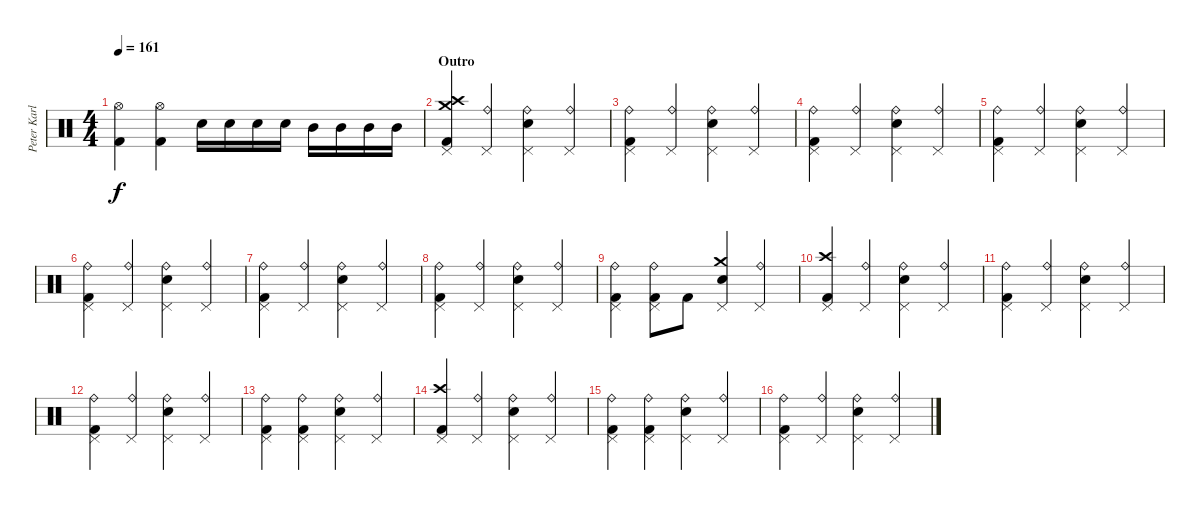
\track ("Peter Karlsson" "Peter Karl") {instrument percussion}
\staff {score}
\articulation defaults
\ts (4 4)
\tempo 161
\clef neutral
\ks c
("Hi-Hat (open)" "Kick (hit) 2").4{dy f} ("Hi-Hat (open)" "Kick (hit) 2").4 "Snare (hit) 2".16 "Snare (hit) 2".16 "Snare (hit) 2".16 "Snare (hit) 2".16 "Mid Tom (hit)".16 "Mid Tom (hit)".16 "Mid Tom (hit)".16 "Mid Tom (hit)".16 |
\section ("" "Outro")
("Crash high (hit)" "Crash medium (hit)" "Pedal Hi-Hat (hit)" "Kick (hit) 2").4 ("Ride (bell)" "Pedal Hi-Hat (hit)").4 ("Ride (bell)" "Snare (hit) 2" "Pedal Hi-Hat (hit)").4 ("Ride (bell)" "Pedal Hi-Hat (hit)").4 |
("Ride (bell)" "Pedal Hi-Hat (hit)" "Kick (hit) 2").4 ("Ride (bell)" "Pedal Hi-Hat (hit)").4 ("Ride (bell)" "Snare (hit) 2" "Pedal Hi-Hat (hit)").4 ("Ride (bell)" "Pedal Hi-Hat (hit)").4 |
("Ride (bell)" "Pedal Hi-Hat (hit)" "Kick (hit) 2").4 ("Ride (bell)" "Pedal Hi-Hat (hit)").4 ("Ride (bell)" "Snare (hit) 2" "Pedal Hi-Hat (hit)").4 ("Ride (bell)" "Pedal Hi-Hat (hit)").4 |
("Ride (bell)" "Pedal Hi-Hat (hit)" "Kick (hit) 2").4 ("Ride (bell)" "Pedal Hi-Hat (hit)").4 ("Ride (bell)" "Snare (hit) 2" "Pedal Hi-Hat (hit)").4 ("Ride (bell)" "Pedal Hi-Hat (hit)").4 |
("Ride (bell)" "Pedal Hi-Hat (hit)" "Kick (hit) 2").4 ("Ride (bell)" "Pedal Hi-Hat (hit)").4 ("Ride (bell)" "Snare (hit) 2" "Pedal Hi-Hat (hit)").4 ("Ride (bell)" "Pedal Hi-Hat (hit)").4 |
("Ride (bell)" "Pedal Hi-Hat (hit)" "Kick (hit) 2").4 ("Ride (bell)" "Pedal Hi-Hat (hit)").4 ("Ride (bell)" "Snare (hit) 2" "Pedal Hi-Hat (hit)").4 ("Ride (bell)" "Pedal Hi-Hat (hit)").4 |
("Ride (bell)" "Pedal Hi-Hat (hit)" "Kick (hit) 2").4 ("Ride (bell)" "Pedal Hi-Hat (hit)").4 ("Ride (bell)" "Snare (hit) 2" "Pedal Hi-Hat (hit)").4 ("Ride (bell)" "Pedal Hi-Hat (hit)").4 |
("Ride (bell)" "Pedal Hi-Hat (hit)" "Kick (hit) 2").4 ("Ride (bell)" "Pedal Hi-Hat (hit)" "Kick (hit) 2").8 "Kick (hit) 2".8 ("Crash medium (hit)" "Snare (hit) 2" "Pedal Hi-Hat (hit)").4 ("Ride (bell)" "Pedal Hi-Hat (hit)").4 |
("Crash high (hit)" "Pedal Hi-Hat (hit)" "Kick (hit) 2").4 ("Ride (bell)" "Pedal Hi-Hat (hit)").4 ("Ride (bell)" "Snare (hit) 2" "Pedal Hi-Hat (hit)").4 ("Ride (bell)" "Pedal Hi-Hat (hit)").4 |
("Ride (bell)" "Pedal Hi-Hat (hit)" "Kick (hit) 2").4 ("Ride (bell)" "Pedal Hi-Hat (hit)").4 ("Ride (bell)" "Snare (hit) 2" "Pedal Hi-Hat (hit)").4 ("Ride (bell)" "Pedal Hi-Hat (hit)").4 |
("Ride (bell)" "Pedal Hi-Hat (hit)" "Kick (hit) 2").4 ("Ride (bell)" "Pedal Hi-Hat (hit)").4 ("Ride (bell)" "Snare (hit) 2" "Pedal Hi-Hat (hit)").4 ("Ride (bell)" "Pedal Hi-Hat (hit)").4 |
("Ride (bell)" "Pedal Hi-Hat (hit)" "Kick (hit) 2").4 ("Ride (bell)" "Pedal Hi-Hat (hit)" "Kick (hit) 2").4 ("Ride (bell)" "Snare (hit) 2" "Pedal Hi-Hat (hit)").4 ("Ride (bell)" "Pedal Hi-Hat (hit)").4 |
("Crash high (hit)" "Pedal Hi-Hat (hit)" "Kick (hit) 2").4 ("Ride (bell)" "Pedal Hi-Hat (hit)").4 ("Ride (bell)" "Snare (hit) 2" "Pedal Hi-Hat (hit)").4 ("Ride (bell)" "Pedal Hi-Hat (hit)").4 |
("Ride (bell)" "Pedal Hi-Hat (hit)" "Kick (hit) 2").4 ("Ride (bell)" "Pedal Hi-Hat (hit)" "Kick (hit) 2").4 ("Ride (bell)" "Snare (hit) 2" "Pedal Hi-Hat (hit)").4 ("Ride (bell)" "Pedal Hi-Hat (hit)").4 |
("Ride (bell)" "Pedal Hi-Hat (hit)" "Kick (hit) 2").4 ("Ride (bell)" "Pedal Hi-Hat (hit)").4 ("Ride (bell)" "Snare (hit) 2" "Pedal Hi-Hat (hit)").4 ("Ride (bell)" "Pedal Hi-Hat (hit)").4
